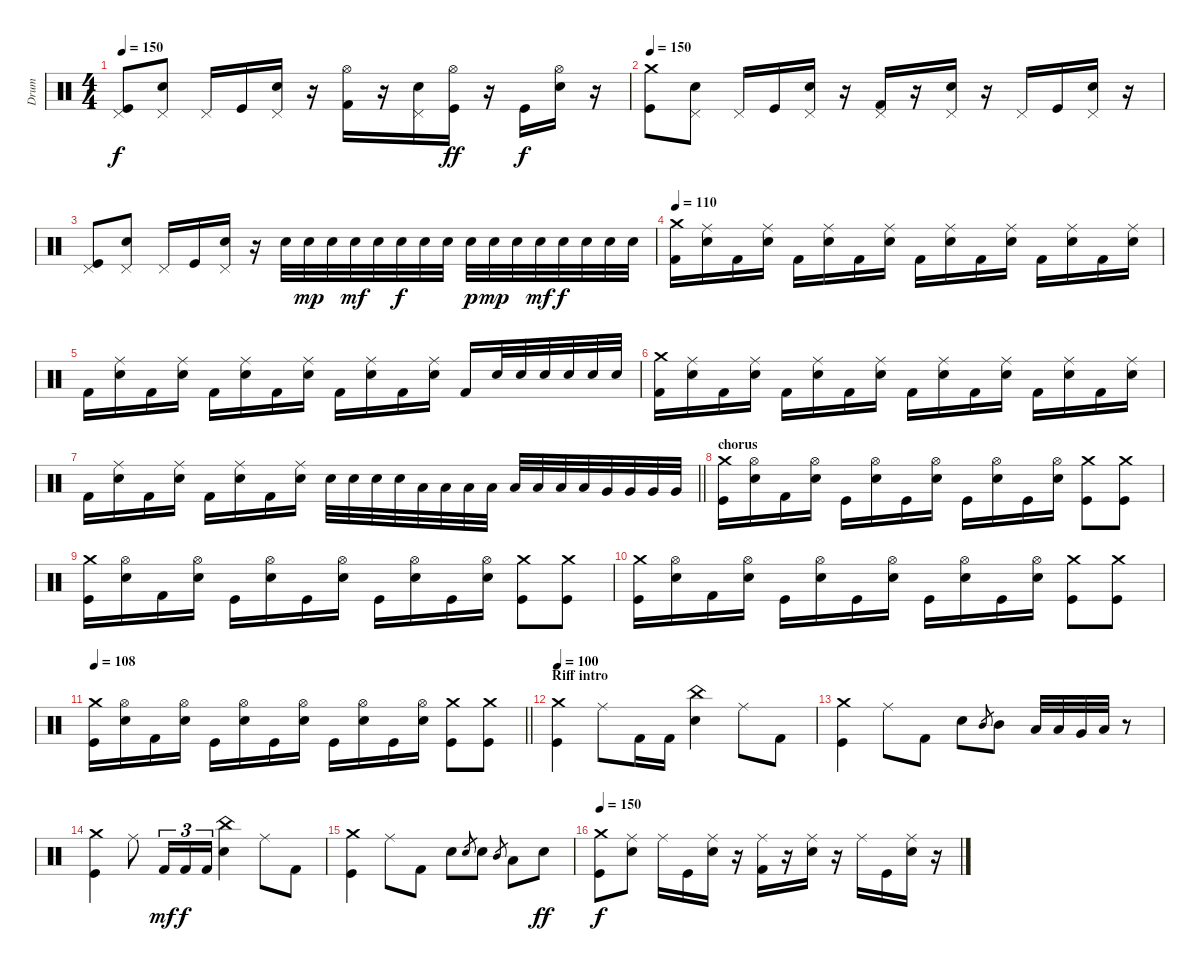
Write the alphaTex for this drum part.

\track ("Drum" "Drum") {instrument percussion}
\staff {score}
\articulation defaults
\ts (4 4)
\tempo 150
\clef neutral
\ks c
("Pedal Hi-Hat (hit)" "Kick (hit)").8{dy f} ("Pedal Hi-Hat (hit)" "Snare (hit) 2").8 "Pedal Hi-Hat (hit)".16 "Kick (hit)".16 ("Pedal Hi-Hat (hit)" "Snare (hit) 2").16 r.16 ("Hi-Hat (open)" "Kick (hit) 2").16 r.16 ("Pedal Hi-Hat (hit)" "Snare (hit) 2").16 ("Hi-Hat (open)" "Kick (hit)").16{dy ff} r.16 "Kick (hit)".16{dy f} ("Hi-Hat (open)" "Snare (hit) 2").16 r.16 |
\tempo 150
("Crash medium (hit)" "Kick (hit)").8 ("Pedal Hi-Hat (hit)" "Snare (hit) 2").8 "Pedal Hi-Hat (hit)".16 "Kick (hit)".16 ("Pedal Hi-Hat (hit)" "Snare (hit) 2").16 r.16 ("Pedal Hi-Hat (hit)" "Kick (hit) 2").16 r.16 ("Pedal Hi-Hat (hit)" "Snare (hit) 2").16 r.16 "Pedal Hi-Hat (hit)".16 "Kick (hit)".16 ("Pedal Hi-Hat (hit)" "Snare (hit) 2").16 r.16 |
("Pedal Hi-Hat (hit)" "Kick (hit)").8 ("Pedal Hi-Hat (hit)" "Snare (hit) 2").8 "Pedal Hi-Hat (hit)".16 "Kick (hit)".16 ("Pedal Hi-Hat (hit)" "Snare (hit) 2").16 r.16 "Snare (hit) 2".32 "Snare (hit) 2".32{dy mp} "Snare (hit) 2".32 "Snare (hit) 2".32{dy mf} "Snare (hit) 2".32 "Snare (hit) 2".32{dy f} "Snare (hit) 2".32 "Snare (hit) 2".32 "Snare (hit) 2".32{dy p} "Snare (hit) 2".32{dy mp} "Snare (hit) 2".32 "Snare (hit) 2".32{dy mf} "Snare (hit) 2".32{dy f} "Snare (hit) 2".32 "Snare (hit) 2".32 "Snare (hit) 2".32 |
\tempo 110
("Crash medium (hit)" "Kick (hit) 2").16 ("Ride (middle)" "Snare (hit) 2").16 "Kick (hit) 2".16 ("Ride (middle)" "Snare (hit) 2").16 "Kick (hit) 2".16 ("Ride (middle)" "Snare (hit) 2").16 "Kick (hit) 2".16 ("Ride (middle)" "Snare (hit) 2").16 "Kick (hit) 2".16 ("Ride (middle)" "Snare (hit) 2").16 "Kick (hit) 2".16 ("Ride (middle)" "Snare (hit) 2").16 "Kick (hit) 2".16 ("Ride (middle)" "Snare (hit) 2").16 "Kick (hit) 2".16 ("Ride (middle)" "Snare (hit) 2").16 |
"Kick (hit) 2".16 ("Ride (middle)" "Snare (hit) 2").16 "Kick (hit) 2".16 ("Ride (middle)" "Snare (hit) 2").16 "Kick (hit) 2".16 ("Ride (middle)" "Snare (hit) 2").16 "Kick (hit) 2".16 ("Ride (middle)" "Snare (hit) 2").16 "Kick (hit) 2".16 ("Ride (middle)" "Snare (hit) 2").16 "Kick (hit) 2".16 ("Ride (middle)" "Snare (hit) 2").16 "Kick (hit) 2".16 "Snare (hit) 2".32 "Snare (hit) 2".32 "Snare (hit) 2".32 "Snare (hit) 2".32 "Snare (hit) 2".32 "Snare (hit) 2".32 |
("Crash medium (hit)" "Kick (hit) 2").16 ("Ride (middle)" "Snare (hit) 2").16 "Kick (hit) 2".16 ("Ride (middle)" "Snare (hit) 2").16 "Kick (hit) 2".16 ("Ride (middle)" "Snare (hit) 2").16 "Kick (hit) 2".16 ("Ride (middle)" "Snare (hit) 2").16 "Kick (hit) 2".16 ("Ride (middle)" "Snare (hit) 2").16 "Kick (hit) 2".16 ("Ride (middle)" "Snare (hit) 2").16 "Kick (hit) 2".16 ("Ride (middle)" "Snare (hit) 2").16 "Kick (hit) 2".16 ("Ride (middle)" "Snare (hit) 2").16 |
\barLineRight lightlight "Kick (hit) 2".16
("Ride (middle)" "Snare (hit) 2").16 "Kick (hit) 2".16 ("Ride (middle)" "Snare (hit) 2").16 "Kick (hit) 2".16 ("Ride (middle)" "Snare (hit) 2").16 "Kick (hit) 2".16 ("Ride (middle)" "Snare (hit) 2").16 "Snare (hit) 2".32 "Snare (hit) 2".32 "Snare (hit) 2".32 "Snare (hit) 2".32 "Low Tom (hit)".32 "Low Tom (hit)".32 "Low Tom (hit)".32 "Low Tom (hit)".32 "Low Tom (hit)".32 "Low Tom (hit)".32 "Low Tom (hit)".32 "Low Tom (hit)".32 "Very Low Tom (hit)".32 "Very Low Tom (hit)".32 "Very Low Tom (hit)".32 "Very Low Tom (hit)".32 |
\section ("" "chorus")
("Crash medium (hit)" "Kick (hit)").16 ("Hi-Hat (open)" "Snare (hit) 2").16 "Kick (hit) 2".16 ("Hi-Hat (open)" "Snare (hit) 2").16 "Kick (hit)".16 ("Hi-Hat (open)" "Snare (hit) 2").16 "Kick (hit)".16 ("Hi-Hat (open)" "Snare (hit) 2").16 "Kick (hit)".16 ("Hi-Hat (open)" "Snare (hit) 2").16 "Kick (hit)".16 ("Hi-Hat (open)" "Snare (hit) 2").16 ("Crash medium (hit)" "Kick (hit)").8 ("Crash medium (hit)" "Kick (hit)").8 |
("Crash medium (hit)" "Kick (hit)").16 ("Hi-Hat (open)" "Snare (hit) 2").16 "Kick (hit) 2".16 ("Hi-Hat (open)" "Snare (hit) 2").16 "Kick (hit)".16 ("Hi-Hat (open)" "Snare (hit) 2").16 "Kick (hit)".16 ("Hi-Hat (open)" "Snare (hit) 2").16 "Kick (hit)".16 ("Hi-Hat (open)" "Snare (hit) 2").16 "Kick (hit)".16 ("Hi-Hat (open)" "Snare (hit) 2").16 ("Crash medium (hit)" "Kick (hit)").8 ("Crash medium (hit)" "Kick (hit)").8 |
("Crash medium (hit)" "Kick (hit)").16 ("Hi-Hat (open)" "Snare (hit) 2").16 "Kick (hit) 2".16 ("Hi-Hat (open)" "Snare (hit) 2").16 "Kick (hit)".16 ("Hi-Hat (open)" "Snare (hit) 2").16 "Kick (hit)".16 ("Hi-Hat (open)" "Snare (hit) 2").16 "Kick (hit)".16 ("Hi-Hat (open)" "Snare (hit) 2").16 "Kick (hit)".16 ("Hi-Hat (open)" "Snare (hit) 2").16 ("Crash medium (hit)" "Kick (hit)").8 ("Crash medium (hit)" "Kick (hit)").8 |
\tempo 108
\barLineRight lightlight
("Crash medium (hit)" "Kick (hit)").16 ("Hi-Hat (open)" "Snare (hit) 2").16 "Kick (hit) 2".16 ("Hi-Hat (open)" "Snare (hit) 2").16 "Kick (hit)".16 ("Hi-Hat (open)" "Snare (hit) 2").16 "Kick (hit)".16 ("Hi-Hat (open)" "Snare (hit) 2").16 "Kick (hit)".16 ("Hi-Hat (open)" "Snare (hit) 2").16 "Kick (hit)".16 ("Hi-Hat (open)" "Snare (hit) 2").16 ("Crash medium (hit)" "Kick (hit)").8 ("Crash medium (hit)" "Kick (hit)").8 |
\section ("" "Riff intro")
\tempo 100
("Crash medium (hit)" "Kick (hit)").4 "Ride (middle)".8 "Kick (hit) 2".16 "Kick (hit) 2".16 ("China (hit)" "Snare (hit) 2").4 "Ride (middle)".8 "Kick (hit) 2".8 |
("Crash medium (hit)" "Kick (hit)").4 "Ride (middle)".8 "Kick (hit) 2".8 "Snare (hit) 2".8 "Mid Tom (hit)".8{gr} "Mid Tom (hit)".8 "Low Tom (hit)".32 "Low Tom (hit)".32 "Very Low Tom (hit)".32 "Low Floor Tom (hit)".32 r.8 |
("Crash medium (hit)" "Kick (hit)").4 "Ride (middle)".8 "Kick (hit) 2".16{tu (3 2) dy mf} "Kick (hit) 2".16{tu (3 2) dy f} "Kick (hit) 2".16{tu (3 2)} ("China (hit)" "Snare (hit) 2").4 "Ride (middle)".8 "Kick (hit) 2".8 |
("Crash medium (hit)" "Kick (hit)").4 "Ride (middle)".8 "Kick (hit) 2".8 "Snare (hit) 2".8 "Snare (hit) 2".8{gr} "Snare (hit) 2".8 "Mid Tom (hit)".8{gr} "Low Tom (hit)".8 "Snare (hit) 2".8{dy ff} |
\tempo 150
("Crash medium (hit)" "Kick (hit)").8{dy f} ("Ride (middle)" "Snare (hit) 2").8 "Ride (middle)".16 "Kick (hit)".16 ("Ride (middle)" "Snare (hit) 2").16 r.16 ("Ride (middle)" "Kick (hit) 2").16 r.16 ("Ride (middle)" "Snare (hit) 2").16 r.16 "Ride (middle)".16 "Kick (hit)".16 ("Ride (middle)" "Snare (hit) 2").16 r.16
